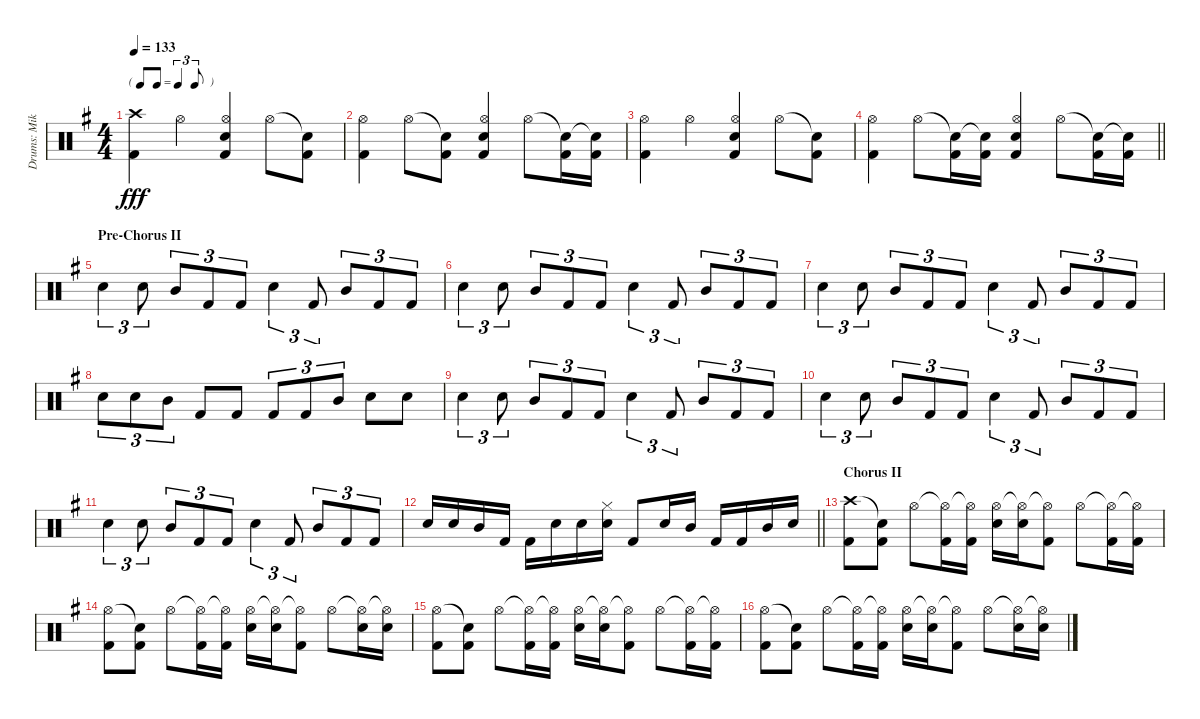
\track ("Drums: Mike" "Drums: Mik") {instrument percussion}
\staff {score}
\articulation defaults
\ts (4 4)
\tf triplet8th
\tempo 133
\clef neutral
\ks g
("Crash high (hit)" "Kick (hit) 2").4{dy fff} "Hi-Hat (open)".4 ("Hi-Hat (open)" "Electric Snare (hit)" "Kick (hit) 2").4 "Hi-Hat (open)".8 ("Snare (hit)"{t} "Kick (hit) 2").8 |
("Hi-Hat (open)" "Kick (hit) 2").4 "Hi-Hat (open)".8 ("Snare (hit)"{t} "Kick (hit) 2").8 ("Hi-Hat (open)" "Electric Snare (hit)" "Kick (hit) 2").4 "Hi-Hat (open)".8 ("Snare (hit)"{t} "Kick (hit) 2").16 ("Snare (hit)"{t} "Kick (hit) 2").16 |
("Hi-Hat (open)" "Kick (hit) 2").4 "Hi-Hat (open)".4 ("Hi-Hat (open)" "Electric Snare (hit)" "Kick (hit) 2").4 "Hi-Hat (open)".8 ("Snare (hit)"{t} "Kick (hit) 2").8 |
\barLineRight lightlight
("Hi-Hat (open)" "Kick (hit) 2").4 "Hi-Hat (open)".8 ("Snare (hit)"{t} "Kick (hit) 2").16 ("Snare (hit)"{t} "Kick (hit) 2").16 ("Hi-Hat (open)" "Electric Snare (hit)" "Kick (hit) 2").4 "Hi-Hat (open)".8 ("Snare (hit)"{t} "Kick (hit) 2").16 ("Snare (hit)"{t} "Kick (hit) 2").16 |
\section ("" "Pre-Chorus II")
"Electric Snare (hit)".4{tu (3 2)} "Electric Snare (hit)".8{tu (3 2)} "Mid Tom (hit)".8{tu (3 2)} "Kick (hit) 2".8{tu (3 2)} "Kick (hit) 2".8{tu (3 2)} "Electric Snare (hit)".4{tu (3 2)} "Kick (hit) 2".8{tu (3 2)} "Mid Tom (hit)".8{tu (3 2)} "Kick (hit) 2".8{tu (3 2)} "Kick (hit) 2".8{tu (3 2)} |
"Electric Snare (hit)".4{tu (3 2)} "Electric Snare (hit)".8{tu (3 2)} "Mid Tom (hit)".8{tu (3 2)} "Kick (hit) 2".8{tu (3 2)} "Kick (hit) 2".8{tu (3 2)} "Electric Snare (hit)".4{tu (3 2)} "Kick (hit) 2".8{tu (3 2)} "Mid Tom (hit)".8{tu (3 2)} "Kick (hit) 2".8{tu (3 2)} "Kick (hit) 2".8{tu (3 2)} |
"Electric Snare (hit)".4{tu (3 2)} "Electric Snare (hit)".8{tu (3 2)} "Mid Tom (hit)".8{tu (3 2)} "Kick (hit) 2".8{tu (3 2)} "Kick (hit) 2".8{tu (3 2)} "Electric Snare (hit)".4{tu (3 2)} "Kick (hit) 2".8{tu (3 2)} "Mid Tom (hit)".8{tu (3 2)} "Kick (hit) 2".8{tu (3 2)} "Kick (hit) 2".8{tu (3 2)} |
"Electric Snare (hit)".8{tu (3 2)} "Electric Snare (hit)".8{tu (3 2)} "Mid Tom (hit)".8{tu (3 2)} "Kick (hit) 2".8 "Kick (hit) 2".8 "Kick (hit) 2".8{tu (3 2)} "Kick (hit) 2".8{tu (3 2)} "Mid Tom (hit)".8{tu (3 2)} "Electric Snare (hit)".8 "Electric Snare (hit)".8 |
"Electric Snare (hit)".4{tu (3 2)} "Electric Snare (hit)".8{tu (3 2)} "Mid Tom (hit)".8{tu (3 2)} "Kick (hit) 2".8{tu (3 2)} "Kick (hit) 2".8{tu (3 2)} "Electric Snare (hit)".4{tu (3 2)} "Kick (hit) 2".8{tu (3 2)} "Mid Tom (hit)".8{tu (3 2)} "Kick (hit) 2".8{tu (3 2)} "Kick (hit) 2".8{tu (3 2)} |
"Electric Snare (hit)".4{tu (3 2)} "Electric Snare (hit)".8{tu (3 2)} "Mid Tom (hit)".8{tu (3 2)} "Kick (hit) 2".8{tu (3 2)} "Kick (hit) 2".8{tu (3 2)} "Electric Snare (hit)".4{tu (3 2)} "Kick (hit) 2".8{tu (3 2)} "Mid Tom (hit)".8{tu (3 2)} "Kick (hit) 2".8{tu (3 2)} "Kick (hit) 2".8{tu (3 2)} |
"Electric Snare (hit)".4{tu (3 2)} "Electric Snare (hit)".8{tu (3 2)} "Mid Tom (hit)".8{tu (3 2)} "Kick (hit) 2".8{tu (3 2)} "Kick (hit) 2".8{tu (3 2)} "Electric Snare (hit)".4{tu (3 2)} "Kick (hit) 2".8{tu (3 2)} "Mid Tom (hit)".8{tu (3 2)} "Kick (hit) 2".8{tu (3 2)} "Kick (hit) 2".8{tu (3 2)} |
\barLineRight lightlight "Electric Snare (hit)".16 "Electric Snare (hit)".16 "Mid Tom (hit)".16 "Kick (hit) 2".16 "Kick (hit) 2".16 "Electric Snare (hit)".16 "Electric Snare (hit)".16
("Hi-Hat (closed)" "Electric Snare (hit)").16 "Kick (hit) 2".8 "Electric Snare (hit)".16 "Mid Tom (hit)".16 "Kick (hit) 2".16 "Kick (hit) 2".16 "Mid Tom (hit)".16 "Electric Snare (hit)".16 |
\section ("" "Chorus II")
("Crash high (hit)" "Kick (hit) 2").8 ("Snare (hit)"{t} "Kick (hit) 2").8 "Hi-Hat (open)".8 ("Hi-Hat (open)"{t} "Kick (hit) 2").16 ("Hi-Hat (open)"{t} "Kick (hit) 2").16 ("Hi-Hat (open)" "Electric Snare (hit)").16 ("Hi-Hat (open)"{t} "Electric Snare (hit)").16 ("Hi-Hat (open)"{t} "Kick (hit) 2").8 "Hi-Hat (open)".8 ("Hi-Hat (open)"{t} "Kick (hit) 2").16 ("Hi-Hat (open)"{t} "Kick (hit) 2").16 |
("Hi-Hat (open)" "Kick (hit) 2").8 ("Snare (hit)"{t} "Kick (hit) 2").8 "Hi-Hat (open)".8 ("Hi-Hat (open)"{t} "Kick (hit) 2").16 ("Hi-Hat (open)"{t} "Kick (hit) 2").16 ("Hi-Hat (open)" "Electric Snare (hit)").16 ("Hi-Hat (open)"{t} "Electric Snare (hit)").16 ("Hi-Hat (open)"{t} "Kick (hit) 2").8 "Hi-Hat (open)".8 ("Hi-Hat (open)"{t} "Electric Snare (hit)").16 ("Hi-Hat (open)"{t} "Electric Snare (hit)").16 |
("Hi-Hat (open)" "Kick (hit) 2").8 ("Snare (hit)"{t} "Kick (hit) 2").8 "Hi-Hat (open)".8 ("Hi-Hat (open)"{t} "Kick (hit) 2").16 ("Hi-Hat (open)"{t} "Kick (hit) 2").16 ("Hi-Hat (open)" "Electric Snare (hit)").16 ("Hi-Hat (open)"{t} "Electric Snare (hit)").16 ("Hi-Hat (open)"{t} "Kick (hit) 2").8 "Hi-Hat (open)".8 ("Hi-Hat (open)"{t} "Kick (hit) 2").16 ("Hi-Hat (open)"{t} "Kick (hit) 2").16 |
("Hi-Hat (open)" "Kick (hit) 2").8 ("Snare (hit)"{t} "Kick (hit) 2").8 "Hi-Hat (open)".8 ("Hi-Hat (open)"{t} "Kick (hit) 2").16 ("Hi-Hat (open)"{t} "Kick (hit) 2").16 ("Hi-Hat (open)" "Electric Snare (hit)").16 ("Hi-Hat (open)"{t} "Electric Snare (hit)").16 ("Hi-Hat (open)"{t} "Kick (hit) 2").8 "Hi-Hat (open)".8 ("Hi-Hat (open)"{t} "Electric Snare (hit)").16 ("Hi-Hat (open)"{t} "Electric Snare (hit)").16
